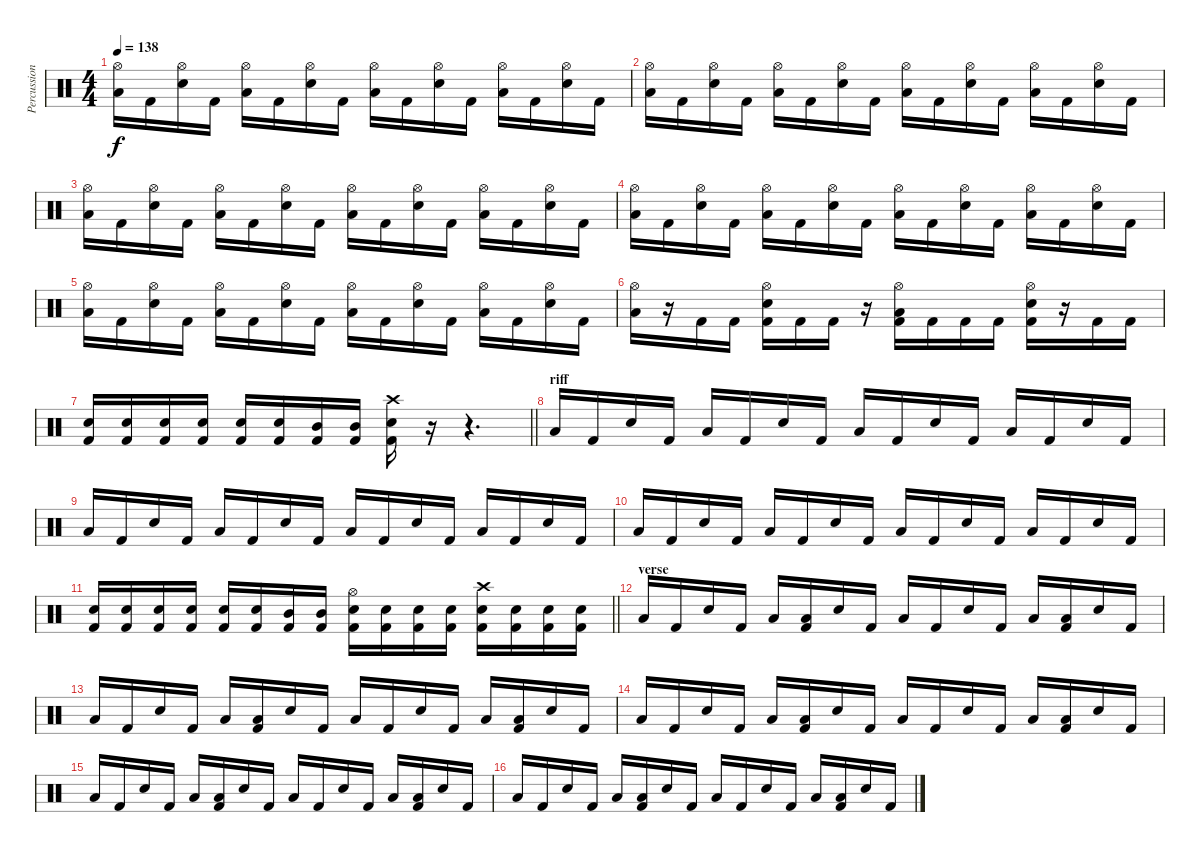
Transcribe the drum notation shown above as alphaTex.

\track ("Percussion" "Percussion") {instrument percussion}
\staff {score}
\articulation defaults
\ts (4 4)
\tempo 138
\clef neutral
\ks c
("Hi-Hat (open)" "Low Tom (hit)").16{dy f} "Kick (hit) 2".16 ("Hi-Hat (open)" "Snare (hit) 2").16 "Kick (hit) 2".16 ("Hi-Hat (open)" "Low Tom (hit)").16 "Kick (hit) 2".16 ("Hi-Hat (open)" "Snare (hit) 2").16 "Kick (hit) 2".16 ("Hi-Hat (open)" "Low Tom (hit)").16 "Kick (hit) 2".16 ("Hi-Hat (open)" "Snare (hit) 2").16 "Kick (hit) 2".16 ("Hi-Hat (open)" "Low Tom (hit)").16 "Kick (hit) 2".16 ("Hi-Hat (open)" "Snare (hit) 2").16 "Kick (hit) 2".16 |
("Hi-Hat (open)" "Low Tom (hit)").16 "Kick (hit) 2".16 ("Hi-Hat (open)" "Snare (hit) 2").16 "Kick (hit) 2".16 ("Hi-Hat (open)" "Low Tom (hit)").16 "Kick (hit) 2".16 ("Hi-Hat (open)" "Snare (hit) 2").16 "Kick (hit) 2".16 ("Hi-Hat (open)" "Low Tom (hit)").16 "Kick (hit) 2".16 ("Hi-Hat (open)" "Snare (hit) 2").16 "Kick (hit) 2".16 ("Hi-Hat (open)" "Low Tom (hit)").16 "Kick (hit) 2".16 ("Hi-Hat (open)" "Snare (hit) 2").16 "Kick (hit) 2".16 |
("Hi-Hat (open)" "Low Tom (hit)").16 "Kick (hit) 2".16 ("Hi-Hat (open)" "Snare (hit) 2").16 "Kick (hit) 2".16 ("Hi-Hat (open)" "Low Tom (hit)").16 "Kick (hit) 2".16 ("Hi-Hat (open)" "Snare (hit) 2").16 "Kick (hit) 2".16 ("Hi-Hat (open)" "Low Tom (hit)").16 "Kick (hit) 2".16 ("Hi-Hat (open)" "Snare (hit) 2").16 "Kick (hit) 2".16 ("Hi-Hat (open)" "Low Tom (hit)").16 "Kick (hit) 2".16 ("Hi-Hat (open)" "Snare (hit) 2").16 "Kick (hit) 2".16 |
("Hi-Hat (open)" "Low Tom (hit)").16 "Kick (hit) 2".16 ("Hi-Hat (open)" "Snare (hit) 2").16 "Kick (hit) 2".16 ("Hi-Hat (open)" "Low Tom (hit)").16 "Kick (hit) 2".16 ("Hi-Hat (open)" "Snare (hit) 2").16 "Kick (hit) 2".16 ("Hi-Hat (open)" "Low Tom (hit)").16 "Kick (hit) 2".16 ("Hi-Hat (open)" "Snare (hit) 2").16 "Kick (hit) 2".16 ("Hi-Hat (open)" "Low Tom (hit)").16 "Kick (hit) 2".16 ("Hi-Hat (open)" "Snare (hit) 2").16 "Kick (hit) 2".16 |
("Hi-Hat (open)" "Low Tom (hit)").16 "Kick (hit) 2".16 ("Hi-Hat (open)" "Snare (hit) 2").16 "Kick (hit) 2".16 ("Hi-Hat (open)" "Low Tom (hit)").16 "Kick (hit) 2".16 ("Hi-Hat (open)" "Snare (hit) 2").16 "Kick (hit) 2".16 ("Hi-Hat (open)" "Low Tom (hit)").16 "Kick (hit) 2".16 ("Hi-Hat (open)" "Snare (hit) 2").16 "Kick (hit) 2".16 ("Hi-Hat (open)" "Low Tom (hit)").16 "Kick (hit) 2".16 ("Hi-Hat (open)" "Snare (hit) 2").16 "Kick (hit) 2".16 |
("Hi-Hat (open)" "Low Tom (hit)").16 r.16 "Kick (hit) 2".16 "Kick (hit) 2".16 ("Hi-Hat (open)" "Snare (hit) 2" "Kick (hit) 2").16 "Kick (hit) 2".16 "Kick (hit) 2".16 r.16 ("Hi-Hat (open)" "Low Tom (hit)" "Kick (hit) 2").16 "Kick (hit) 2".16 "Kick (hit) 2".16 "Kick (hit) 2".16 ("Hi-Hat (open)" "Snare (hit) 2" "Kick (hit) 2").16 r.16 "Kick (hit) 2".16 "Kick (hit) 2".16 |
\barLineRight lightlight
("Snare (hit) 2" "Kick (hit) 2").16 ("Snare (hit) 2" "Kick (hit) 2").16 ("Snare (hit) 2" "Kick (hit) 2").16 ("Snare (hit) 2" "Kick (hit) 2").16 ("Snare (hit) 2" "Kick (hit) 2").16 ("Snare (hit) 2" "Kick (hit) 2").16 ("Mid Tom (hit)" "Kick (hit) 2").16 ("Mid Tom (hit)" "Kick (hit) 2").16 ("Crash high (hit)" "Snare (hit) 2" "Kick (hit) 2").16 r.16 r.4{d} |
\section ("" "riff")
"Low Tom (hit)".16 "Kick (hit) 2".16 "Snare (hit) 2".16 "Kick (hit) 2".16 "Low Tom (hit)".16 "Kick (hit) 2".16 "Snare (hit) 2".16 "Kick (hit) 2".16 "Low Tom (hit)".16 "Kick (hit) 2".16 "Snare (hit) 2".16 "Kick (hit) 2".16 "Low Tom (hit)".16 "Kick (hit) 2".16 "Snare (hit) 2".16 "Kick (hit) 2".16 |
"Low Tom (hit)".16 "Kick (hit) 2".16 "Snare (hit) 2".16 "Kick (hit) 2".16 "Low Tom (hit)".16 "Kick (hit) 2".16 "Snare (hit) 2".16 "Kick (hit) 2".16 "Low Tom (hit)".16 "Kick (hit) 2".16 "Snare (hit) 2".16 "Kick (hit) 2".16 "Low Tom (hit)".16 "Kick (hit) 2".16 "Snare (hit) 2".16 "Kick (hit) 2".16 |
"Low Tom (hit)".16 "Kick (hit) 2".16 "Snare (hit) 2".16 "Kick (hit) 2".16 "Low Tom (hit)".16 "Kick (hit) 2".16 "Snare (hit) 2".16 "Kick (hit) 2".16 "Low Tom (hit)".16 "Kick (hit) 2".16 "Snare (hit) 2".16 "Kick (hit) 2".16 "Low Tom (hit)".16 "Kick (hit) 2".16 "Snare (hit) 2".16 "Kick (hit) 2".16 |
\barLineRight lightlight
("Snare (hit) 2" "Kick (hit) 2").16 ("Snare (hit) 2" "Kick (hit) 2").16 ("Snare (hit) 2" "Kick (hit) 2").16 ("Snare (hit) 2" "Kick (hit) 2").16 ("Snare (hit) 2" "Kick (hit) 2").16 ("Snare (hit) 2" "Kick (hit) 2").16 ("Mid Tom (hit)" "Kick (hit) 2").16 ("Mid Tom (hit)" "Kick (hit) 2").16 ("Hi-Hat (open)" "Snare (hit) 2" "Kick (hit) 2").16 ("Snare (hit) 2" "Kick (hit) 2").16 ("Snare (hit) 2" "Kick (hit) 2").16 ("Snare (hit) 2" "Kick (hit) 2").16 ("Crash high (hit)" "Snare (hit) 2" "Kick (hit) 2").16 ("Snare (hit) 2" "Kick (hit) 2").16 ("Snare (hit) 2" "Kick (hit) 2").16 ("Snare (hit) 2" "Kick (hit) 2").16 |
\section ("" "verse")
"Low Tom (hit)".16 "Kick (hit) 2".16 "Snare (hit) 2".16 "Kick (hit) 2".16 "Low Tom (hit)".16 ("Low Tom (hit)" "Kick (hit) 2").16 "Snare (hit) 2".16 "Kick (hit) 2".16 "Low Tom (hit)".16 "Kick (hit) 2".16 "Snare (hit) 2".16 "Kick (hit) 2".16 "Low Tom (hit)".16 ("Low Tom (hit)" "Kick (hit) 2").16 "Snare (hit) 2".16 "Kick (hit) 2".16 |
"Low Tom (hit)".16 "Kick (hit) 2".16 "Snare (hit) 2".16 "Kick (hit) 2".16 "Low Tom (hit)".16 ("Low Tom (hit)" "Kick (hit) 2").16 "Snare (hit) 2".16 "Kick (hit) 2".16 "Low Tom (hit)".16 "Kick (hit) 2".16 "Snare (hit) 2".16 "Kick (hit) 2".16 "Low Tom (hit)".16 ("Low Tom (hit)" "Kick (hit) 2").16 "Snare (hit) 2".16 "Kick (hit) 2".16 |
"Low Tom (hit)".16 "Kick (hit) 2".16 "Snare (hit) 2".16 "Kick (hit) 2".16 "Low Tom (hit)".16 ("Low Tom (hit)" "Kick (hit) 2").16 "Snare (hit) 2".16 "Kick (hit) 2".16 "Low Tom (hit)".16 "Kick (hit) 2".16 "Snare (hit) 2".16 "Kick (hit) 2".16 "Low Tom (hit)".16 ("Low Tom (hit)" "Kick (hit) 2").16 "Snare (hit) 2".16 "Kick (hit) 2".16 |
"Low Tom (hit)".16 "Kick (hit) 2".16 "Snare (hit) 2".16 "Kick (hit) 2".16 "Low Tom (hit)".16 ("Low Tom (hit)" "Kick (hit) 2").16 "Snare (hit) 2".16 "Kick (hit) 2".16 "Low Tom (hit)".16 "Kick (hit) 2".16 "Snare (hit) 2".16 "Kick (hit) 2".16 "Low Tom (hit)".16 ("Low Tom (hit)" "Kick (hit) 2").16 "Snare (hit) 2".16 "Kick (hit) 2".16 |
"Low Tom (hit)".16 "Kick (hit) 2".16 "Snare (hit) 2".16 "Kick (hit) 2".16 "Low Tom (hit)".16 ("Low Tom (hit)" "Kick (hit) 2").16 "Snare (hit) 2".16 "Kick (hit) 2".16 "Low Tom (hit)".16 "Kick (hit) 2".16 "Snare (hit) 2".16 "Kick (hit) 2".16 "Low Tom (hit)".16 ("Low Tom (hit)" "Kick (hit) 2").16 "Snare (hit) 2".16 "Kick (hit) 2".16
